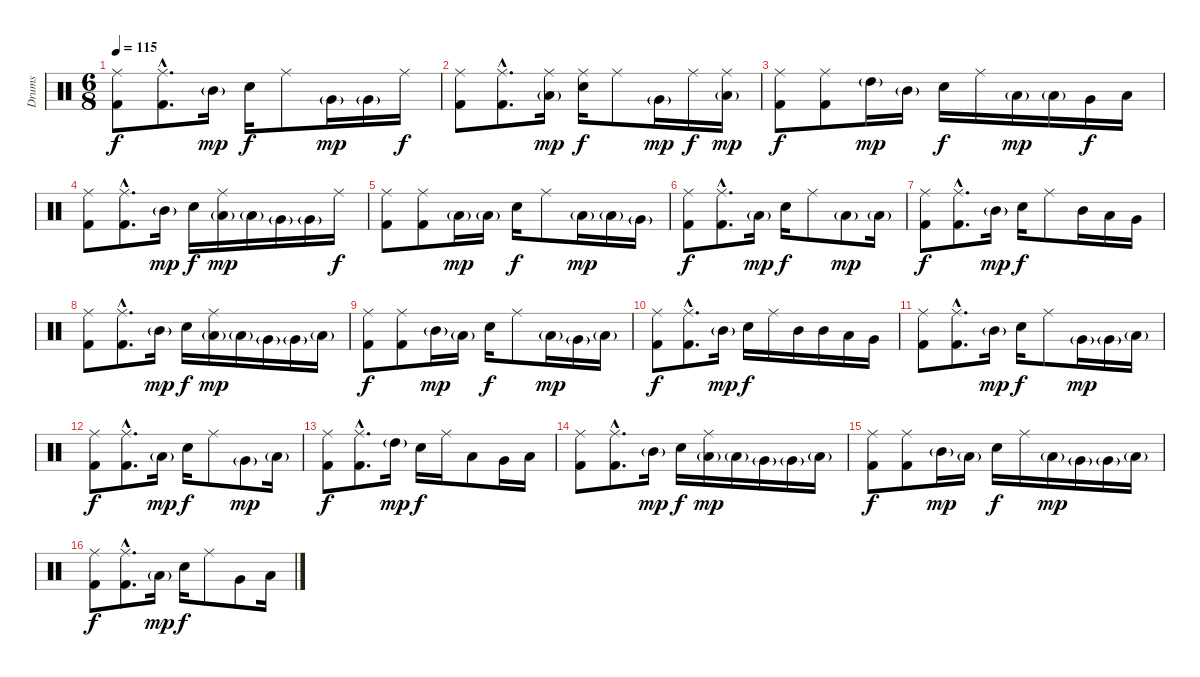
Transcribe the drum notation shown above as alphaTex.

\track ("Drums" "Drums") {instrument percussion}
\staff {score}
\articulation defaults
\ts (6 8)
\tempo 115
\clef neutral
\ks c
("Ride (middle)" "Kick (hit) 2").8{dy f} ("Ride (middle)"{hac} "Kick (hit) 2"{hac}).8{d} "Mid Tom (hit)"{g}.16{dy mp} "Electric Snare (hit)".16{dy f} "Ride (middle)".8 "Very Low Tom (hit)"{g}.16{dy mp} "Very Low Tom (hit)"{g}.16 "Ride (middle)".16{dy f} |
("Ride (middle)" "Kick (hit) 2").8 ("Ride (middle)"{hac} "Kick (hit) 2"{hac}).8{d} ("Ride (middle)" "Low Tom (hit)"{g}).16{dy mp} ("Ride (middle)" "Electric Snare (hit)").16{dy f} "Ride (middle)".8 "Very Low Tom (hit)"{g}.16{dy mp} "Ride (middle)".16{dy f} ("Ride (middle)" "Low Floor Tom (hit)"{g}).16{dy mp} |
("Ride (middle)" "Kick (hit) 2").8{dy f} ("Ride (middle)" "Kick (hit) 2").8 "High Tom (hit)"{g}.16{dy mp} "Mid Tom (hit)"{g}.16 "Electric Snare (hit)".16{dy f} "Ride (middle)".16 "Low Tom (hit)"{g}.16{dy mp} "Low Tom (hit)"{g}.16 "Very Low Tom (hit)".16{dy f} "Low Floor Tom (hit)".16 |
("Ride (middle)" "Kick (hit) 2").8 ("Ride (middle)"{hac} "Kick (hit) 2"{hac}).8{d} "Mid Tom (hit)"{g}.16{dy mp} "Electric Snare (hit)".16{dy f} ("Ride (middle)" "Low Tom (hit)"{g}).16{dy mp} "Low Tom (hit)"{g}.16 "Very Low Tom (hit)"{g}.16 "Very Low Tom (hit)"{g}.16 "Ride (middle)".16{dy f} |
("Ride (middle)" "Kick (hit) 2").8 ("Ride (middle)" "Kick (hit) 2").8 "Low Tom (hit)"{g}.16{dy mp} "Low Tom (hit)"{g}.16 "Electric Snare (hit)".16{dy f} "Ride (middle)".8 "Low Tom (hit)"{g}.16{dy mp} "Low Tom (hit)"{g}.16 "Very Low Tom (hit)"{g}.16 |
("Ride (middle)" "Kick (hit) 2").8{dy f} ("Ride (middle)"{hac} "Kick (hit) 2"{hac}).8{d} "Low Tom (hit)"{g}.16{dy mp} "Electric Snare (hit)".16{dy f} "Ride (middle)".8 "Low Tom (hit)"{g}.8{dy mp} "Low Floor Tom (hit)"{g}.16 |
("Ride (middle)" "Kick (hit) 2").8{dy f} ("Ride (middle)"{hac} "Kick (hit) 2"{hac}).8{d} "Mid Tom (hit)"{g}.16{dy mp} "Electric Snare (hit)".16{dy f} "Ride (middle)".8 "Mid Tom (hit)".16 "Low Tom (hit)".16 "Very Low Tom (hit)".16 |
("Ride (middle)" "Kick (hit) 2").8 ("Ride (middle)"{hac} "Kick (hit) 2"{hac}).8{d} "Mid Tom (hit)"{g}.16{dy mp} "Electric Snare (hit)".16{dy f} ("Ride (middle)" "Low Tom (hit)"{g}).16{dy mp} "Low Tom (hit)"{g}.16 "Very Low Tom (hit)"{g}.16 "Very Low Tom (hit)"{g}.16 "Low Floor Tom (hit)"{g}.16 |
("Ride (middle)" "Kick (hit) 2").8{dy f} ("Ride (middle)" "Kick (hit) 2").8 "Mid Tom (hit)"{g}.16{dy mp} "Low Tom (hit)"{g}.16 "Electric Snare (hit)".16{dy f} "Ride (middle)".8 "Low Tom (hit)"{g}.16{dy mp} "Very Low Tom (hit)"{g}.16 "Low Floor Tom (hit)"{g}.16 |
("Ride (middle)" "Kick (hit) 2").8{dy f} ("Ride (middle)"{hac} "Kick (hit) 2"{hac}).8{d} "Mid Tom (hit)"{g}.16{dy mp} "Electric Snare (hit)".16{dy f} "Ride (middle)".16 "Mid Tom (hit)".16 "Mid Tom (hit)".16 "Low Tom (hit)".16 "Very Low Tom (hit)".16 |
("Ride (middle)" "Kick (hit) 2").8 ("Ride (middle)"{hac} "Kick (hit) 2"{hac}).8{d} "Mid Tom (hit)"{g}.16{dy mp} "Electric Snare (hit)".16{dy f} "Ride (middle)".8 "Very Low Tom (hit)"{g}.16{dy mp} "Very Low Tom (hit)"{g}.16 "Low Floor Tom (hit)"{g}.16 |
("Ride (middle)" "Kick (hit) 2").8{dy f} ("Ride (middle)"{hac} "Kick (hit) 2"{hac}).8{d} "Low Tom (hit)"{g}.16{dy mp} "Electric Snare (hit)".16{dy f} "Ride (middle)".8 "Very Low Tom (hit)"{g}.8{dy mp} "Low Floor Tom (hit)"{g}.16 |
("Ride (middle)" "Kick (hit) 2").8{dy f} ("Ride (middle)"{hac} "Kick (hit) 2"{hac}).8{d} "High Tom (hit)"{g}.16{dy mp} "Electric Snare (hit)".16{dy f} "Ride (middle)".16 "Low Tom (hit)".8 "Very Low Tom (hit)".16 "Low Floor Tom (hit)".16 |
("Ride (middle)" "Kick (hit) 2").8 ("Ride (middle)"{hac} "Kick (hit) 2"{hac}).8{d} "Mid Tom (hit)"{g}.16{dy mp} "Electric Snare (hit)".16{dy f} ("Ride (middle)" "Low Tom (hit)"{g}).16{dy mp} "Low Tom (hit)"{g}.16 "Very Low Tom (hit)"{g}.16 "Very Low Tom (hit)"{g}.16 "Low Floor Tom (hit)"{g}.16 |
("Ride (middle)" "Kick (hit) 2").8{dy f} ("Ride (middle)" "Kick (hit) 2").8 "Mid Tom (hit)"{g}.16{dy mp} "Low Tom (hit)"{g}.16 "Electric Snare (hit)".16{dy f} "Ride (middle)".16 "Low Tom (hit)"{g}.16{dy mp} "Very Low Tom (hit)"{g}.16 "Very Low Tom (hit)"{g}.16 "Low Floor Tom (hit)"{g}.16 |
("Ride (middle)" "Kick (hit) 2").8{dy f} ("Ride (middle)"{hac} "Kick (hit) 2"{hac}).8{d} "Low Tom (hit)"{g}.16{dy mp} "Electric Snare (hit)".16{dy f} "Ride (middle)".8 "Very Low Tom (hit)".8 "Low Floor Tom (hit)".16
